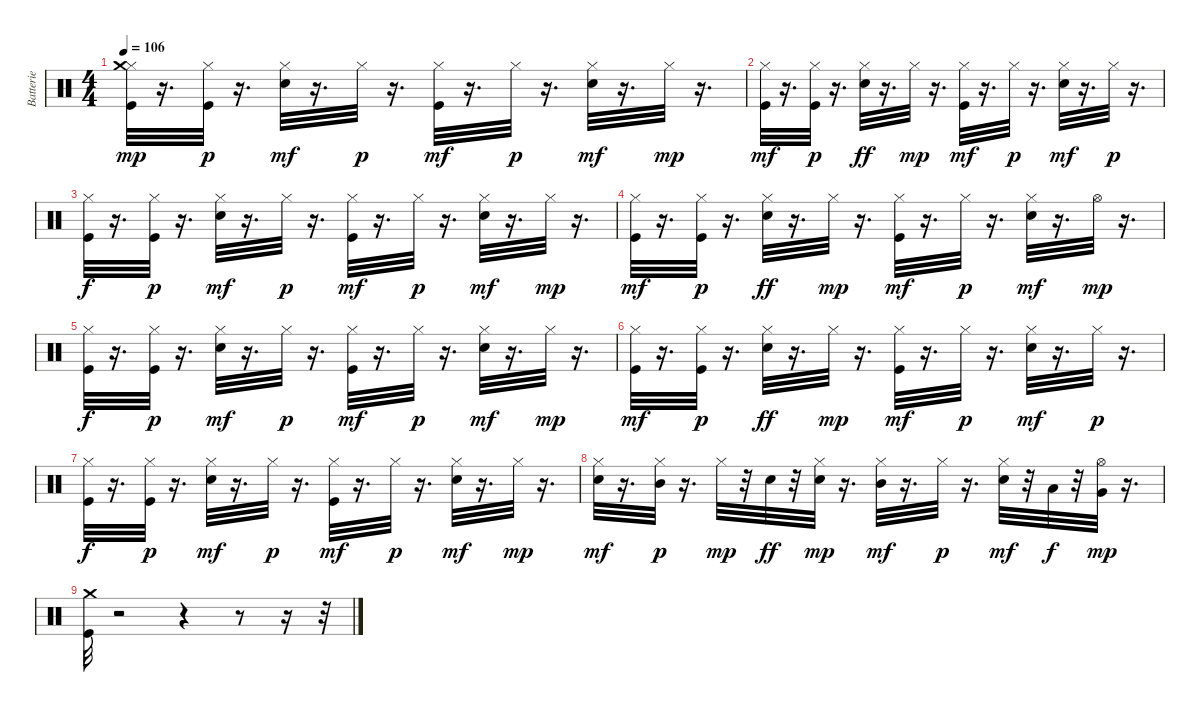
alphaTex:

\track ("Batterie" "Batterie") {instrument percussion}
\staff {score}
\articulation defaults
\ts (4 4)
\tempo 106
\clef neutral
\ks c
("Hi-Hat (closed)" "Crash medium (hit)" "Kick (hit)").32{dy mp} r.16{d} ("Hi-Hat (closed)" "Kick (hit)").32{dy p} r.16{d} ("Hi-Hat (closed)" "Electric Snare (hit)").32{dy mf} r.16{d} "Hi-Hat (closed)".32{dy p} r.16{d} ("Hi-Hat (closed)" "Kick (hit)").32{dy mf} r.16{d} "Hi-Hat (closed)".32{dy p} r.16{d} ("Hi-Hat (closed)" "Electric Snare (hit)").32{dy mf} r.16{d} "Hi-Hat (closed)".32{dy mp} r.16{d} |
("Hi-Hat (closed)" "Kick (hit)").32{dy mf} r.16{d} ("Kick (hit)" "Hi-Hat (closed)").32{dy p} r.16{d} ("Hi-Hat (closed)" "Electric Snare (hit)").32{dy ff} r.16{d} "Hi-Hat (closed)".32{dy mp} r.16{d} ("Hi-Hat (closed)" "Kick (hit)").32{dy mf} r.16{d} "Hi-Hat (closed)".32{dy p} r.16{d} ("Hi-Hat (closed)" "Electric Snare (hit)").32{dy mf} r.16{d} "Hi-Hat (closed)".32{dy p} r.16{d} |
("Hi-Hat (closed)" "Kick (hit)").32{dy f} r.16{d} ("Hi-Hat (closed)" "Kick (hit)").32{dy p} r.16{d} ("Hi-Hat (closed)" "Electric Snare (hit)").32{dy mf} r.16{d} "Hi-Hat (closed)".32{dy p} r.16{d} ("Hi-Hat (closed)" "Kick (hit)").32{dy mf} r.16{d} "Hi-Hat (closed)".32{dy p} r.16{d} ("Hi-Hat (closed)" "Electric Snare (hit)").32{dy mf} r.16{d} "Hi-Hat (closed)".32{dy mp} r.16{d} |
("Hi-Hat (closed)" "Kick (hit)").32{dy mf} r.16{d} ("Kick (hit)" "Hi-Hat (closed)").32{dy p} r.16{d} ("Hi-Hat (closed)" "Electric Snare (hit)").32{dy ff} r.16{d} "Hi-Hat (closed)".32{dy mp} r.16{d} ("Hi-Hat (closed)" "Kick (hit)").32{dy mf} r.16{d} "Hi-Hat (closed)".32{dy p} r.16{d} ("Hi-Hat (closed)" "Electric Snare (hit)").32{dy mf} r.16{d} "Hi-Hat (open)".32{dy mp} r.16{d} |
("Hi-Hat (closed)" "Kick (hit)").32{dy f} r.16{d} ("Hi-Hat (closed)" "Kick (hit)").32{dy p} r.16{d} ("Hi-Hat (closed)" "Electric Snare (hit)").32{dy mf} r.16{d} "Hi-Hat (closed)".32{dy p} r.16{d} ("Hi-Hat (closed)" "Kick (hit)").32{dy mf} r.16{d} "Hi-Hat (closed)".32{dy p} r.16{d} ("Hi-Hat (closed)" "Electric Snare (hit)").32{dy mf} r.16{d} "Hi-Hat (closed)".32{dy mp} r.16{d} |
("Hi-Hat (closed)" "Kick (hit)").32{dy mf} r.16{d} ("Kick (hit)" "Hi-Hat (closed)").32{dy p} r.16{d} ("Hi-Hat (closed)" "Electric Snare (hit)").32{dy ff} r.16{d} "Hi-Hat (closed)".32{dy mp} r.16{d} ("Hi-Hat (closed)" "Kick (hit)").32{dy mf} r.16{d} "Hi-Hat (closed)".32{dy p} r.16{d} ("Hi-Hat (closed)" "Electric Snare (hit)").32{dy mf} r.16{d} "Hi-Hat (closed)".32{dy p} r.16{d} |
("Hi-Hat (closed)" "Kick (hit)").32{dy f} r.16{d} ("Hi-Hat (closed)" "Kick (hit)").32{dy p} r.16{d} ("Hi-Hat (closed)" "Electric Snare (hit)").32{dy mf} r.16{d} "Hi-Hat (closed)".32{dy p} r.16{d} ("Hi-Hat (closed)" "Kick (hit)").32{dy mf} r.16{d} "Hi-Hat (closed)".32{dy p} r.16{d} ("Hi-Hat (closed)" "Electric Snare (hit)").32{dy mf} r.16{d} "Hi-Hat (closed)".32{dy mp} r.16{d} |
("Electric Snare (hit)" "Hi-Hat (closed)").32{dy mf} r.16{d} ("Mid Tom (hit)" "Hi-Hat (closed)").32{dy p} r.16{d} "Hi-Hat (closed)".32{dy mp} r.32 "Electric Snare (hit)".32{dy ff} r.32 ("Electric Snare (hit)" "Hi-Hat (closed)").32{dy mp} r.16{d} ("Hi-Hat (closed)" "Mid Tom (hit)").32{dy mf} r.16{d} "Hi-Hat (closed)".32{dy p} r.16{d} ("Hi-Hat (closed)" "Electric Snare (hit)").32{dy mf} r.32 "Low Tom (hit)".32{dy f} r.32 ("Very Low Tom (hit)" "Hi-Hat (open)").32{dy mp} r.16{d} |
("Crash medium (hit)" "Kick (hit)").32 r.2 r.4 r.8 r.16 r.32
